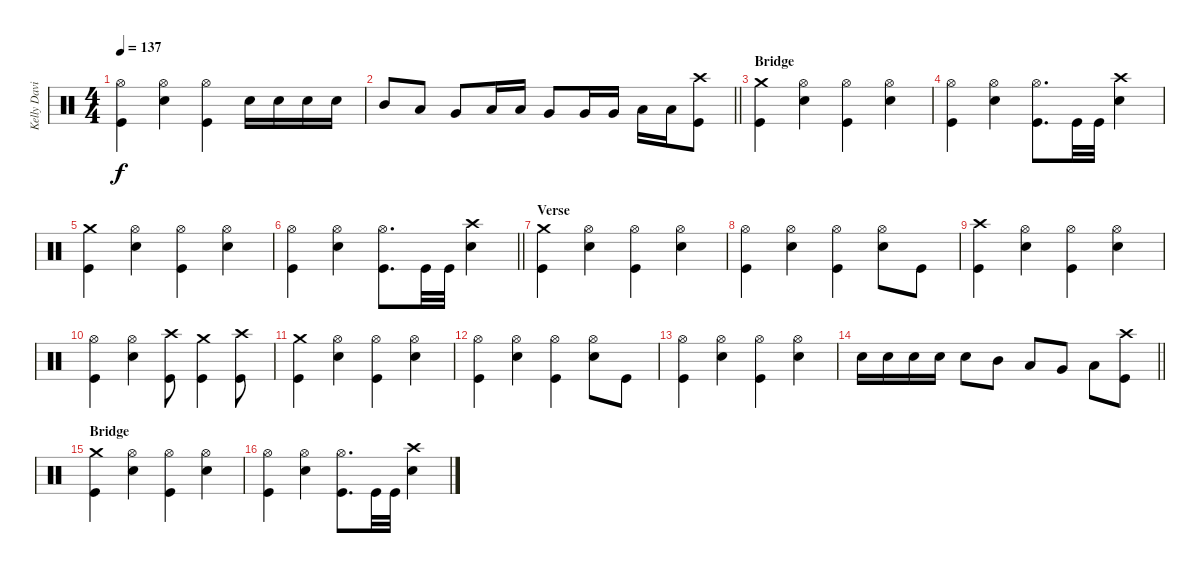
\track ("Kelly David Smith" "Kelly Davi") {instrument percussion}
\staff {score}
\articulation defaults
\ts (4 4)
\tempo 137
\clef neutral
\ks c
("Hi-Hat (open)" "Kick (hit)").4{dy f} ("Hi-Hat (open)" "Electric Snare (hit)").4 ("Hi-Hat (open)" "Kick (hit)").4 "Electric Snare (hit)".16 "Electric Snare (hit)".16 "Electric Snare (hit)".16 "Electric Snare (hit)".16 |
\barLineRight lightlight "Mid Tom (hit)".8 "Low Tom (hit)".8 "Very Low Tom (hit)".8 "Low Tom (hit)".16 "Low Tom (hit)".16 "Very Low Tom (hit)".8 "Very Low Tom (hit)".16 "Very Low Tom (hit)".16 "Low Floor Tom (hit)".16 "Low Floor Tom (hit)".16
("Crash high (hit)" "Kick (hit)").8 |
\section ("" "Bridge")
("Crash medium (hit)" "Kick (hit)").4 ("Hi-Hat (open)" "Electric Snare (hit)").4 ("Hi-Hat (open)" "Kick (hit)").4 ("Hi-Hat (open)" "Electric Snare (hit)").4 |
("Hi-Hat (open)" "Kick (hit)").4 ("Hi-Hat (open)" "Electric Snare (hit)").4 ("Hi-Hat (open)" "Kick (hit)").8{d} "Kick (hit)".32 "Kick (hit)".32 ("Crash high (hit)" "Electric Snare (hit)").4 |
("Crash medium (hit)" "Kick (hit)").4 ("Hi-Hat (open)" "Electric Snare (hit)").4 ("Hi-Hat (open)" "Kick (hit)").4 ("Hi-Hat (open)" "Electric Snare (hit)").4 |
\barLineRight lightlight
("Hi-Hat (open)" "Kick (hit)").4 ("Hi-Hat (open)" "Electric Snare (hit)").4 ("Hi-Hat (open)" "Kick (hit)").8{d} "Kick (hit)".32 "Kick (hit)".32 ("Crash high (hit)" "Electric Snare (hit)").4 |
\section ("" "Verse")
("Crash medium (hit)" "Kick (hit)").4 ("Hi-Hat (open)" "Electric Snare (hit)").4 ("Hi-Hat (open)" "Kick (hit)").4 ("Hi-Hat (open)" "Electric Snare (hit)").4 |
("Hi-Hat (open)" "Kick (hit)").4 ("Hi-Hat (open)" "Electric Snare (hit)").4 ("Hi-Hat (open)" "Kick (hit)").4 ("Hi-Hat (open)" "Electric Snare (hit)").8 "Kick (hit)".8 |
("Crash high (hit)" "Kick (hit)").4 ("Hi-Hat (open)" "Electric Snare (hit)").4 ("Hi-Hat (open)" "Kick (hit)").4 ("Hi-Hat (open)" "Electric Snare (hit)").4 |
("Hi-Hat (open)" "Kick (hit)").4 ("Hi-Hat (open)" "Electric Snare (hit)").4 ("Crash high (hit)" "Kick (hit)").8 ("Crash medium (hit)" "Kick (hit)").4 ("Crash high (hit)" "Kick (hit)").8 |
("Crash medium (hit)" "Kick (hit)").4 ("Hi-Hat (open)" "Electric Snare (hit)").4 ("Hi-Hat (open)" "Kick (hit)").4 ("Hi-Hat (open)" "Electric Snare (hit)").4 |
("Hi-Hat (open)" "Kick (hit)").4 ("Hi-Hat (open)" "Electric Snare (hit)").4 ("Hi-Hat (open)" "Kick (hit)").4 ("Hi-Hat (open)" "Electric Snare (hit)").8 "Kick (hit)".8 |
("Hi-Hat (open)" "Kick (hit)").4 ("Hi-Hat (open)" "Electric Snare (hit)").4 ("Hi-Hat (open)" "Kick (hit)").4 ("Hi-Hat (open)" "Electric Snare (hit)").4 |
\barLineRight lightlight "Electric Snare (hit)".16 "Electric Snare (hit)".16 "Electric Snare (hit)".16 "Electric Snare (hit)".16 "Electric Snare (hit)".8 "Mid Tom (hit)".8 "Low Tom (hit)".8 "Very Low Tom (hit)".8 "Low Floor Tom (hit)".8
("Crash high (hit)" "Kick (hit)").8 |
\section ("" "Bridge")
("Crash medium (hit)" "Kick (hit)").4 ("Hi-Hat (open)" "Electric Snare (hit)").4 ("Hi-Hat (open)" "Kick (hit)").4 ("Hi-Hat (open)" "Electric Snare (hit)").4 |
("Hi-Hat (open)" "Kick (hit)").4 ("Hi-Hat (open)" "Electric Snare (hit)").4 ("Hi-Hat (open)" "Kick (hit)").8{d} "Kick (hit)".32 "Kick (hit)".32 ("Crash high (hit)" "Electric Snare (hit)").4
